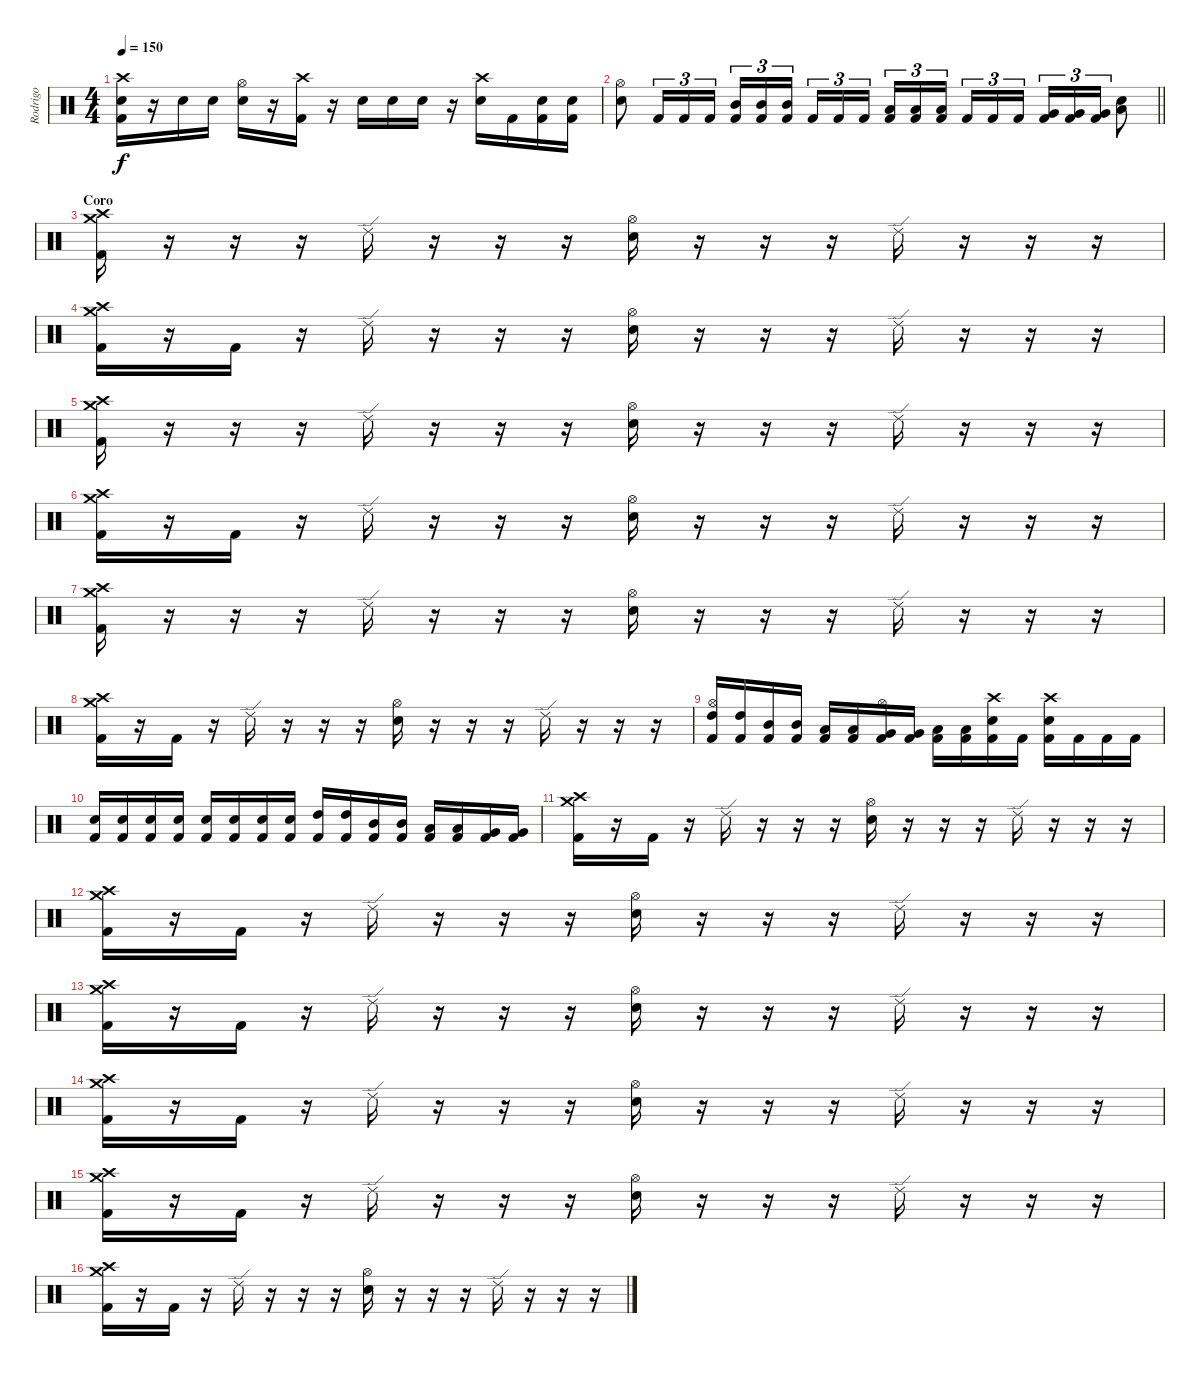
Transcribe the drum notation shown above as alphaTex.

\track ("Rodrigo" "Rodrigo") {instrument percussion}
\staff {score}
\articulation defaults
\ts (4 4)
\tempo 150
\clef neutral
\ks c
("Crash high (hit)" "Electric Snare (hit)" "Kick (hit) 2").16{dy f} r.16 "Electric Snare (hit)".16 "Electric Snare (hit)".16 ("Hi-Hat (open)" "Electric Snare (hit)").16 r.16 ("Crash high (hit)" "Kick (hit) 2").16 r.16 "Electric Snare (hit)".16 "Electric Snare (hit)".16 "Electric Snare (hit)".16 r.16 ("Crash high (hit)" "Electric Snare (hit)").16 "Kick (hit) 2".16 ("Electric Snare (hit)" "Kick (hit) 2").16 ("Electric Snare (hit)" "Kick (hit) 2").16 |
\barLineRight lightlight
("Hi-Hat (open)" "Electric Snare (hit)").8 "Kick (hit) 2".16{tu (3 2)} "Kick (hit) 2".16{tu (3 2)} "Kick (hit) 2".16{tu (3 2)} ("Mid Tom (hit)" "Kick (hit) 2").16{tu (3 2)} ("Mid Tom (hit)" "Kick (hit) 2").16{tu (3 2)} ("Mid Tom (hit)" "Kick (hit) 2").16{tu (3 2) beam splitsecondary} "Kick (hit) 2".16{tu (3 2)} "Kick (hit) 2".16{tu (3 2)} "Kick (hit) 2".16{tu (3 2)} ("Low Tom (hit)" "Kick (hit) 2").16{tu (3 2)} ("Low Tom (hit)" "Kick (hit) 2").16{tu (3 2)} ("Low Tom (hit)" "Kick (hit) 2").16{tu (3 2) beam splitsecondary} "Kick (hit) 2".16{tu (3 2)} "Kick (hit) 2".16{tu (3 2)} "Kick (hit) 2".16{tu (3 2)} ("Very Low Tom (hit)" "Kick (hit) 2").16{tu (3 2)} ("Very Low Tom (hit)" "Kick (hit) 2").16{tu (3 2)} ("Very Low Tom (hit)" "Kick (hit) 2").16{tu (3 2)} ("Low Floor Tom (hit)" "Electric Snare (hit)").8 |
\section ("" "Coro")
("Crash high (hit)" "Crash medium (hit)" "Kick (hit) 2").16 r.16 r.16 r.16 "Ride (edge) 2".16 r.16 r.16 r.16 ("Hi-Hat (open)" "Electric Snare (hit)").16 r.16 r.16 r.16 "Ride (edge) 2".16 r.16 r.16 r.16 |
("Crash high (hit)" "Crash medium (hit)" "Kick (hit) 2").16 r.16 "Kick (hit) 2".16 r.16 "Ride (edge) 2".16 r.16 r.16 r.16 ("Hi-Hat (open)" "Electric Snare (hit)").16 r.16 r.16 r.16 "Ride (edge) 2".16 r.16 r.16 r.16 |
("Crash high (hit)" "Crash medium (hit)" "Kick (hit) 2").16 r.16 r.16 r.16 "Ride (edge) 2".16 r.16 r.16 r.16 ("Hi-Hat (open)" "Electric Snare (hit)").16 r.16 r.16 r.16 "Ride (edge) 2".16 r.16 r.16 r.16 |
("Crash high (hit)" "Crash medium (hit)" "Kick (hit) 2").16 r.16 "Kick (hit) 2".16 r.16 "Ride (edge) 2".16 r.16 r.16 r.16 ("Hi-Hat (open)" "Electric Snare (hit)").16 r.16 r.16 r.16 "Ride (edge) 2".16 r.16 r.16 r.16 |
("Crash high (hit)" "Crash medium (hit)" "Kick (hit) 2").16 r.16 r.16 r.16 "Ride (edge) 2".16 r.16 r.16 r.16 ("Hi-Hat (open)" "Electric Snare (hit)").16 r.16 r.16 r.16 "Ride (edge) 2".16 r.16 r.16 r.16 |
("Crash high (hit)" "Crash medium (hit)" "Kick (hit) 2").16 r.16 "Kick (hit) 2".16 r.16 "Ride (edge) 2".16 r.16 r.16 r.16 ("Hi-Hat (open)" "Electric Snare (hit)").16 r.16 r.16 r.16 "Ride (edge) 2".16 r.16 r.16 r.16 |
("High Tom (hit)" "Hi-Hat (open)" "Kick (hit) 2").16 ("High Tom (hit)" "Kick (hit) 2").16 ("Mid Tom (hit)" "Kick (hit) 2").16 ("Mid Tom (hit)" "Kick (hit) 2").16 ("Low Tom (hit)" "Kick (hit) 2").16 ("Low Tom (hit)" "Kick (hit) 2").16 ("Very Low Tom (hit)" "Hi-Hat (open)" "Kick (hit) 2").16 ("Very Low Tom (hit)" "Kick (hit) 2").16 ("Low Floor Tom (hit)" "Kick (hit) 2").16 ("Low Floor Tom (hit)" "Kick (hit) 2").16 ("Crash high (hit)" "Electric Snare (hit)" "Kick (hit) 2").16 "Kick (hit) 2".16 ("Crash high (hit)" "Electric Snare (hit)" "Kick (hit) 2").16 "Kick (hit) 2".16 "Kick (hit) 2".16 "Kick (hit) 2".16 |
("Electric Snare (hit)" "Kick (hit) 2").16 ("Electric Snare (hit)" "Kick (hit) 2").16 ("Electric Snare (hit)" "Kick (hit) 2").16 ("Electric Snare (hit)" "Kick (hit) 2").16 ("Electric Snare (hit)" "Kick (hit) 2").16 ("Electric Snare (hit)" "Kick (hit) 2").16 ("Electric Snare (hit)" "Kick (hit) 2").16 ("Electric Snare (hit)" "Kick (hit) 2").16 ("High Tom (hit)" "Kick (hit) 2").16 ("High Tom (hit)" "Kick (hit) 2").16 ("Mid Tom (hit)" "Kick (hit) 2").16 ("Mid Tom (hit)" "Kick (hit) 2").16 ("Low Tom (hit)" "Kick (hit) 2").16 ("Low Tom (hit)" "Kick (hit) 2").16 ("Very Low Tom (hit)" "Kick (hit) 2").16 ("Very Low Tom (hit)" "Kick (hit) 2").16 |
("Crash high (hit)" "Crash medium (hit)" "Kick (hit) 2").16 r.16 "Kick (hit) 2".16 r.16 "Ride (edge) 2".16 r.16 r.16 r.16 ("Hi-Hat (open)" "Electric Snare (hit)").16 r.16 r.16 r.16 "Ride (edge) 2".16 r.16 r.16 r.16 |
("Crash high (hit)" "Crash medium (hit)" "Kick (hit) 2").16 r.16 "Kick (hit) 2".16 r.16 "Ride (edge) 2".16 r.16 r.16 r.16 ("Hi-Hat (open)" "Electric Snare (hit)").16 r.16 r.16 r.16 "Ride (edge) 2".16 r.16 r.16 r.16 |
("Crash high (hit)" "Crash medium (hit)" "Kick (hit) 2").16 r.16 "Kick (hit) 2".16 r.16 "Ride (edge) 2".16 r.16 r.16 r.16 ("Hi-Hat (open)" "Electric Snare (hit)").16 r.16 r.16 r.16 "Ride (edge) 2".16 r.16 r.16 r.16 |
("Crash high (hit)" "Crash medium (hit)" "Kick (hit) 2").16 r.16 "Kick (hit) 2".16 r.16 "Ride (edge) 2".16 r.16 r.16 r.16 ("Hi-Hat (open)" "Electric Snare (hit)").16 r.16 r.16 r.16 "Ride (edge) 2".16 r.16 r.16 r.16 |
("Crash high (hit)" "Crash medium (hit)" "Kick (hit) 2").16 r.16 "Kick (hit) 2".16 r.16 "Ride (edge) 2".16 r.16 r.16 r.16 ("Hi-Hat (open)" "Electric Snare (hit)").16 r.16 r.16 r.16 "Ride (edge) 2".16 r.16 r.16 r.16 |
("Crash high (hit)" "Crash medium (hit)" "Kick (hit) 2").16 r.16 "Kick (hit) 2".16 r.16 "Ride (edge) 2".16 r.16 r.16 r.16 ("Hi-Hat (open)" "Electric Snare (hit)").16 r.16 r.16 r.16 "Ride (edge) 2".16 r.16 r.16 r.16
